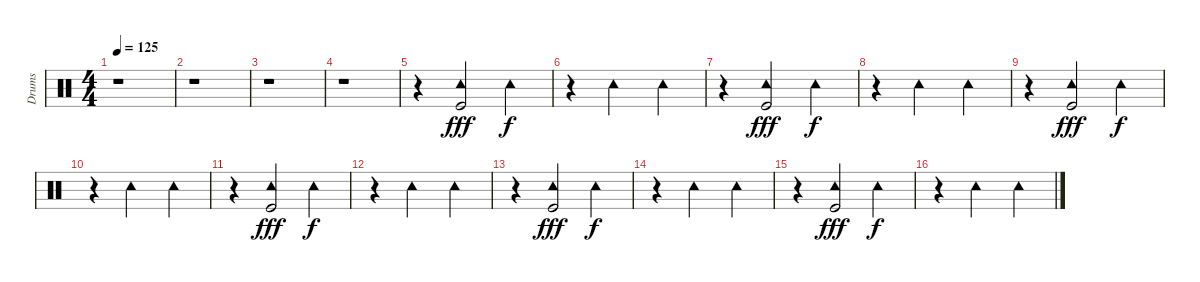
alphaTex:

\track ("Drums" "Drums") {instrument percussion}
\staff {score}
\articulation defaults
\ts (4 4)
\tempo 125
\clef neutral
\ks c
r.1{dy fff} |
r.1 |
r.1 |
r.1 |
r.4 ("Tambourine (hit)" "Kick (hit)").2 "Tambourine (hit)".4{dy f} |
r.4 "Tambourine (hit)".2 "Tambourine (hit)".4 |
r.4 ("Tambourine (hit)" "Kick (hit)").2{dy fff} "Tambourine (hit)".4{dy f} |
r.4 "Tambourine (hit)".2 "Tambourine (hit)".4 |
r.4 ("Tambourine (hit)" "Kick (hit)").2{dy fff} "Tambourine (hit)".4{dy f} |
r.4 "Tambourine (hit)".2 "Tambourine (hit)".4 |
r.4 ("Tambourine (hit)" "Kick (hit)").2{dy fff} "Tambourine (hit)".4{dy f} |
r.4 "Tambourine (hit)".2 "Tambourine (hit)".4 |
r.4 ("Tambourine (hit)" "Kick (hit)").2{dy fff} "Tambourine (hit)".4{dy f} |
r.4 "Tambourine (hit)".2 "Tambourine (hit)".4 |
r.4 ("Tambourine (hit)" "Kick (hit)").2{dy fff} "Tambourine (hit)".4{dy f} |
r.4 "Tambourine (hit)".2 "Tambourine (hit)".4
